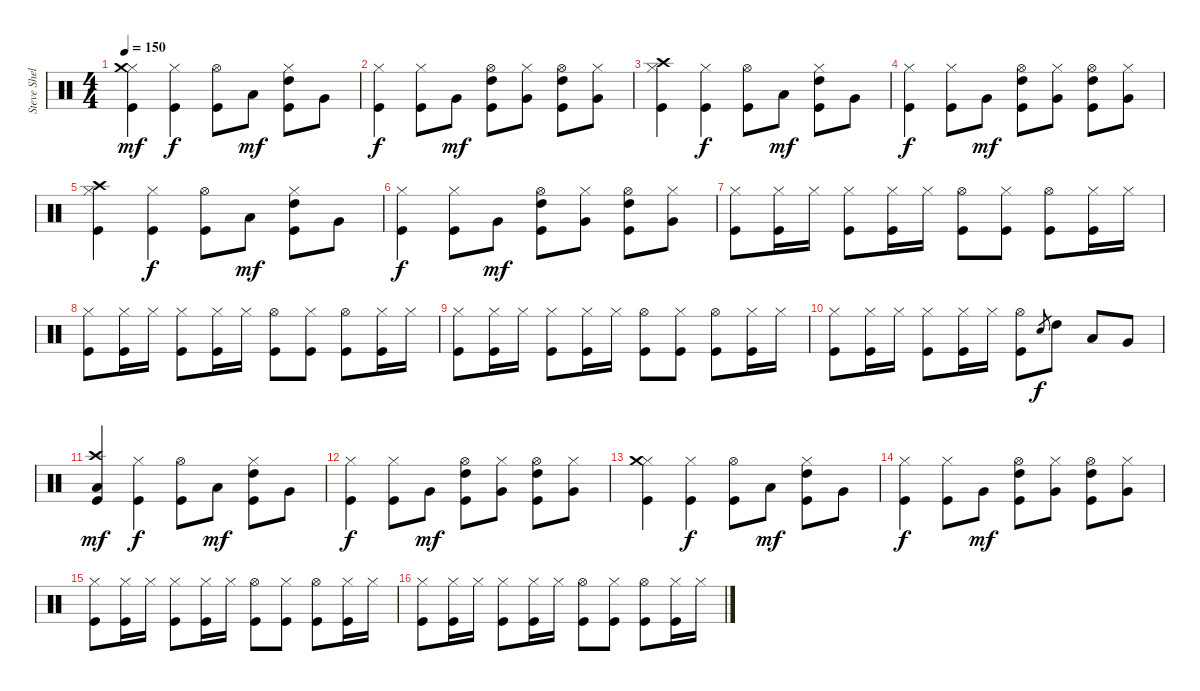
\track ("Steve Shelley" "Steve Shel") {instrument percussion}
\staff {score}
\articulation defaults
\ts (4 4)
\tempo 150
\clef neutral
\ks c
("Hi-Hat (closed)" "Crash medium (hit)" "Kick (hit)").4{dy mf} ("Hi-Hat (closed)" "Kick (hit)").4{dy f} ("Hi-Hat (open)" "Kick (hit)").8 "Low Tom (hit)".8{dy mf} ("Hi-Hat (closed)" "High Tom (hit)" "Kick (hit)").8 "Very Low Tom (hit)".8 |
("Hi-Hat (closed)" "Kick (hit)").4{dy f} ("Hi-Hat (closed)" "Kick (hit)").8 "Very Low Tom (hit)".8{dy mf} ("Hi-Hat (open)" "High Tom (hit)" "Kick (hit)").8 ("Hi-Hat (closed)" "Very Low Tom (hit)").8 ("Hi-Hat (open)" "High Tom (hit)" "Kick (hit)").8 ("Hi-Hat (closed)" "Very Low Tom (hit)").8 |
("Hi-Hat (closed)" "Crash high (hit)" "Kick (hit)").4 ("Hi-Hat (closed)" "Kick (hit)").4{dy f} ("Hi-Hat (open)" "Kick (hit)").8 "Low Tom (hit)".8{dy mf} ("Hi-Hat (closed)" "High Tom (hit)" "Kick (hit)").8 "Very Low Tom (hit)".8 |
("Hi-Hat (closed)" "Kick (hit)").4{dy f} ("Hi-Hat (closed)" "Kick (hit)").8 "Very Low Tom (hit)".8{dy mf} ("Hi-Hat (open)" "High Tom (hit)" "Kick (hit)").8 ("Hi-Hat (closed)" "Very Low Tom (hit)").8 ("Hi-Hat (open)" "High Tom (hit)" "Kick (hit)").8 ("Hi-Hat (closed)" "Very Low Tom (hit)").8 |
("Hi-Hat (closed)" "Crash high (hit)" "Kick (hit)").4 ("Hi-Hat (closed)" "Kick (hit)").4{dy f} ("Hi-Hat (open)" "Kick (hit)").8 "Low Tom (hit)".8{dy mf} ("Hi-Hat (closed)" "High Tom (hit)" "Kick (hit)").8 "Very Low Tom (hit)".8 |
("Hi-Hat (closed)" "Kick (hit)").4{dy f} ("Hi-Hat (closed)" "Kick (hit)").8 "Very Low Tom (hit)".8{dy mf} ("Hi-Hat (open)" "High Tom (hit)" "Kick (hit)").8 ("Hi-Hat (closed)" "Very Low Tom (hit)").8 ("Hi-Hat (open)" "High Tom (hit)" "Kick (hit)").8 ("Hi-Hat (closed)" "Very Low Tom (hit)").8 |
("Hi-Hat (closed)" "Kick (hit)").8 ("Hi-Hat (closed)" "Kick (hit)").16 "Hi-Hat (closed)".16 ("Hi-Hat (closed)" "Kick (hit)").8 ("Hi-Hat (closed)" "Kick (hit)").16 "Hi-Hat (closed)".16 ("Hi-Hat (open)" "Kick (hit)").8 ("Hi-Hat (closed)" "Kick (hit)").8 ("Hi-Hat (open)" "Kick (hit)").8 ("Hi-Hat (closed)" "Kick (hit)").16 "Hi-Hat (closed)".16 |
("Hi-Hat (closed)" "Kick (hit)").8 ("Hi-Hat (closed)" "Kick (hit)").16 "Hi-Hat (closed)".16 ("Hi-Hat (closed)" "Kick (hit)").8 ("Hi-Hat (closed)" "Kick (hit)").16 "Hi-Hat (closed)".16 ("Hi-Hat (open)" "Kick (hit)").8 ("Hi-Hat (closed)" "Kick (hit)").8 ("Hi-Hat (open)" "Kick (hit)").8 ("Hi-Hat (closed)" "Kick (hit)").16 "Hi-Hat (closed)".16 |
("Hi-Hat (closed)" "Kick (hit)").8 ("Hi-Hat (closed)" "Kick (hit)").16 "Hi-Hat (closed)".16 ("Hi-Hat (closed)" "Kick (hit)").8 ("Hi-Hat (closed)" "Kick (hit)").16 "Hi-Hat (closed)".16 ("Hi-Hat (open)" "Kick (hit)").8 ("Hi-Hat (closed)" "Kick (hit)").8 ("Hi-Hat (open)" "Kick (hit)").8 ("Hi-Hat (closed)" "Kick (hit)").16 "Hi-Hat (closed)".16 |
("Hi-Hat (closed)" "Kick (hit)").8 ("Hi-Hat (closed)" "Kick (hit)").16 "Hi-Hat (closed)".16 ("Hi-Hat (closed)" "Kick (hit)").8 ("Hi-Hat (closed)" "Kick (hit)").16 "Hi-Hat (closed)".16 ("Hi-Hat (open)" "Kick (hit)").8 "Electric Snare (hit)".8{gr dy f} "High Tom (hit)".8 "Low Tom (hit)".8 "Very Low Tom (hit)".8 |
("Crash high (hit)" "Low Floor Tom (hit)" "Kick (hit)").4{dy mf} ("Hi-Hat (closed)" "Kick (hit)").4{dy f} ("Hi-Hat (open)" "Kick (hit)").8 "Low Tom (hit)".8{dy mf} ("Hi-Hat (closed)" "High Tom (hit)" "Kick (hit)").8 "Very Low Tom (hit)".8 |
("Hi-Hat (closed)" "Kick (hit)").4{dy f} ("Hi-Hat (closed)" "Kick (hit)").8 "Very Low Tom (hit)".8{dy mf} ("Hi-Hat (open)" "High Tom (hit)" "Kick (hit)").8 ("Hi-Hat (closed)" "Very Low Tom (hit)").8 ("Hi-Hat (open)" "High Tom (hit)" "Kick (hit)").8 ("Hi-Hat (closed)" "Very Low Tom (hit)").8 |
("Hi-Hat (closed)" "Crash medium (hit)" "Kick (hit)").4 ("Hi-Hat (closed)" "Kick (hit)").4{dy f} ("Hi-Hat (open)" "Kick (hit)").8 "Low Tom (hit)".8{dy mf} ("Hi-Hat (closed)" "High Tom (hit)" "Kick (hit)").8 "Very Low Tom (hit)".8 |
("Hi-Hat (closed)" "Kick (hit)").4{dy f} ("Hi-Hat (closed)" "Kick (hit)").8 "Very Low Tom (hit)".8{dy mf} ("Hi-Hat (open)" "High Tom (hit)" "Kick (hit)").8 ("Hi-Hat (closed)" "Very Low Tom (hit)").8 ("Hi-Hat (open)" "High Tom (hit)" "Kick (hit)").8 ("Hi-Hat (closed)" "Very Low Tom (hit)").8 |
("Hi-Hat (closed)" "Kick (hit)").8 ("Hi-Hat (closed)" "Kick (hit)").16 "Hi-Hat (closed)".16 ("Hi-Hat (closed)" "Kick (hit)").8 ("Hi-Hat (closed)" "Kick (hit)").16 "Hi-Hat (closed)".16 ("Hi-Hat (open)" "Kick (hit)").8 ("Hi-Hat (closed)" "Kick (hit)").8 ("Hi-Hat (open)" "Kick (hit)").8 ("Hi-Hat (closed)" "Kick (hit)").16 "Hi-Hat (closed)".16 |
("Hi-Hat (closed)" "Kick (hit)").8 ("Hi-Hat (closed)" "Kick (hit)").16 "Hi-Hat (closed)".16 ("Hi-Hat (closed)" "Kick (hit)").8 ("Hi-Hat (closed)" "Kick (hit)").16 "Hi-Hat (closed)".16 ("Hi-Hat (open)" "Kick (hit)").8 ("Hi-Hat (closed)" "Kick (hit)").8 ("Hi-Hat (open)" "Kick (hit)").8 ("Hi-Hat (closed)" "Kick (hit)").16 "Hi-Hat (closed)".16
